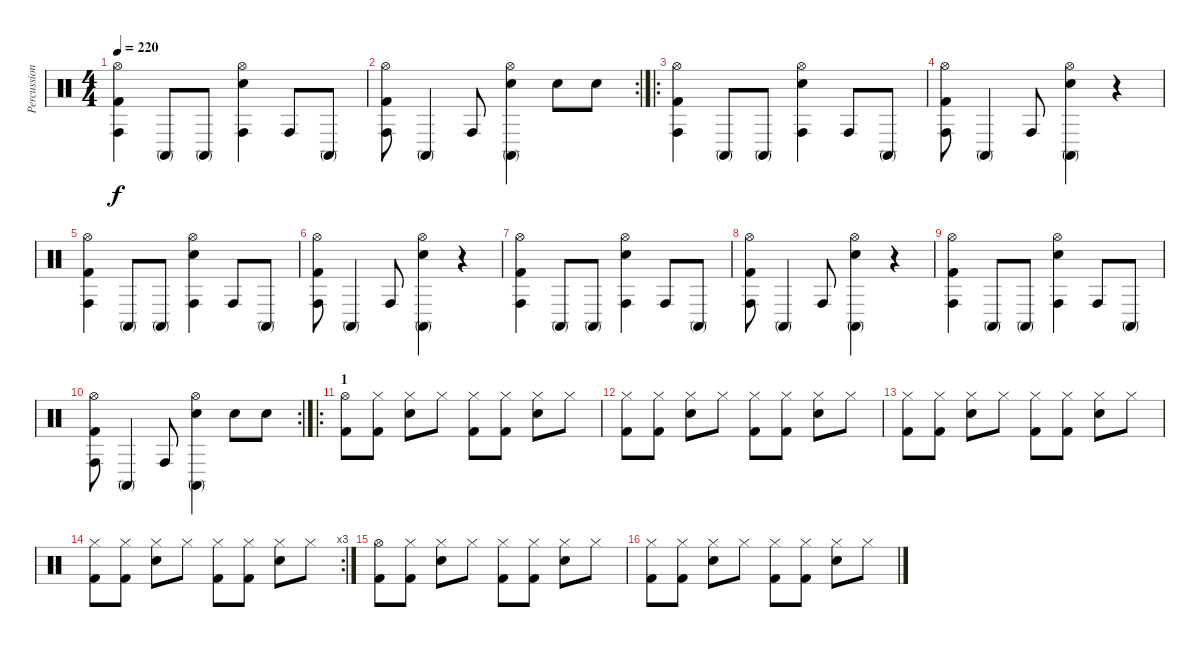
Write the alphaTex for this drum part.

\track ("Percussion" "Percussion") {instrument percussion}
\staff {score}
\articulation defaults
\ts (4 4)
\tempo 220
\clef neutral
\ks c
("Hi-Hat (open)" "Conga high (hit)" "Kick (hit) 2").4{dy f} "Conga high (mute)".8 "Conga high (mute)".8 ("Hi-Hat (open)" "Conga high (hit)" "Snare (hit) 2").4 "Conga high (hit)".8 "Conga high (mute)".8 |
\rc 2
("Hi-Hat (open)" "Conga high (hit)" "Kick (hit) 2").8 "Conga high (mute)".4 "Conga high (hit)".8 ("Hi-Hat (open)" "Conga high (mute)" "Snare (hit) 2").4 "Snare (hit) 2".8 "Snare (hit) 2".8 |
\ro
("Hi-Hat (open)" "Conga high (hit)" "Kick (hit) 2").4 "Conga high (mute)".8 "Conga high (mute)".8 ("Hi-Hat (open)" "Conga high (hit)" "Snare (hit) 2").4 "Conga high (hit)".8 "Conga high (mute)".8 |
("Hi-Hat (open)" "Conga high (hit)" "Kick (hit) 2").8 "Conga high (mute)".4 "Conga high (hit)".8 ("Hi-Hat (open)" "Conga high (mute)" "Snare (hit) 2").4 r.4 |
("Hi-Hat (open)" "Conga high (hit)" "Kick (hit) 2").4 "Conga high (mute)".8 "Conga high (mute)".8 ("Hi-Hat (open)" "Conga high (hit)" "Snare (hit) 2").4 "Conga high (hit)".8 "Conga high (mute)".8 |
("Hi-Hat (open)" "Conga high (hit)" "Kick (hit) 2").8 "Conga high (mute)".4 "Conga high (hit)".8 ("Hi-Hat (open)" "Conga high (mute)" "Snare (hit) 2").4 r.4 |
("Hi-Hat (open)" "Conga high (hit)" "Kick (hit) 2").4 "Conga high (mute)".8 "Conga high (mute)".8 ("Hi-Hat (open)" "Conga high (hit)" "Snare (hit) 2").4 "Conga high (hit)".8 "Conga high (mute)".8 |
("Hi-Hat (open)" "Conga high (hit)" "Kick (hit) 2").8 "Conga high (mute)".4 "Conga high (hit)".8 ("Hi-Hat (open)" "Conga high (mute)" "Snare (hit) 2").4 r.4 |
("Hi-Hat (open)" "Conga high (hit)" "Kick (hit) 2").4 "Conga high (mute)".8 "Conga high (mute)".8 ("Hi-Hat (open)" "Conga high (hit)" "Snare (hit) 2").4 "Conga high (hit)".8 "Conga high (mute)".8 |
\rc 2
("Hi-Hat (open)" "Conga high (hit)" "Kick (hit) 2").8 "Conga high (mute)".4 "Conga high (hit)".8 ("Hi-Hat (open)" "Conga high (mute)" "Snare (hit) 2").4 "Snare (hit) 2".8 "Snare (hit) 2".8 |
\ro
\section ("" "1")
("Hi-Hat (open)" "Kick (hit) 2").8 ("Hi-Hat (closed)" "Kick (hit) 2").8 ("Hi-Hat (closed)" "Snare (hit) 2").8 "Hi-Hat (closed)".8 ("Hi-Hat (closed)" "Kick (hit) 2").8 ("Hi-Hat (closed)" "Kick (hit) 2").8 ("Hi-Hat (closed)" "Snare (hit) 2").8 "Hi-Hat (closed)".8 |
("Hi-Hat (closed)" "Kick (hit) 2").8 ("Hi-Hat (closed)" "Kick (hit) 2").8 ("Hi-Hat (closed)" "Snare (hit) 2").8 "Hi-Hat (closed)".8 ("Hi-Hat (closed)" "Kick (hit) 2").8 ("Hi-Hat (closed)" "Kick (hit) 2").8 ("Hi-Hat (closed)" "Snare (hit) 2").8 "Hi-Hat (closed)".8 |
("Hi-Hat (closed)" "Kick (hit) 2").8 ("Hi-Hat (closed)" "Kick (hit) 2").8 ("Hi-Hat (closed)" "Snare (hit) 2").8 "Hi-Hat (closed)".8 ("Hi-Hat (closed)" "Kick (hit) 2").8 ("Hi-Hat (closed)" "Kick (hit) 2").8 ("Hi-Hat (closed)" "Snare (hit) 2").8 "Hi-Hat (closed)".8 |
\rc 3
("Hi-Hat (closed)" "Kick (hit) 2").8 ("Hi-Hat (closed)" "Kick (hit) 2").8 ("Hi-Hat (closed)" "Snare (hit) 2").8 "Hi-Hat (closed)".8 ("Hi-Hat (closed)" "Kick (hit) 2").8 ("Hi-Hat (closed)" "Kick (hit) 2").8 ("Hi-Hat (closed)" "Snare (hit) 2").8 "Hi-Hat (closed)".8 |
("Hi-Hat (open)" "Kick (hit) 2").8 ("Hi-Hat (closed)" "Kick (hit) 2").8 ("Hi-Hat (closed)" "Snare (hit) 2").8 "Hi-Hat (closed)".8 ("Hi-Hat (closed)" "Kick (hit) 2").8 ("Hi-Hat (closed)" "Kick (hit) 2").8 ("Hi-Hat (closed)" "Snare (hit) 2").8 "Hi-Hat (closed)".8 |
("Hi-Hat (closed)" "Kick (hit) 2").8 ("Hi-Hat (closed)" "Kick (hit) 2").8 ("Hi-Hat (closed)" "Snare (hit) 2").8 "Hi-Hat (closed)".8 ("Hi-Hat (closed)" "Kick (hit) 2").8 ("Hi-Hat (closed)" "Kick (hit) 2").8 ("Hi-Hat (closed)" "Snare (hit) 2").8 "Hi-Hat (closed)".8
